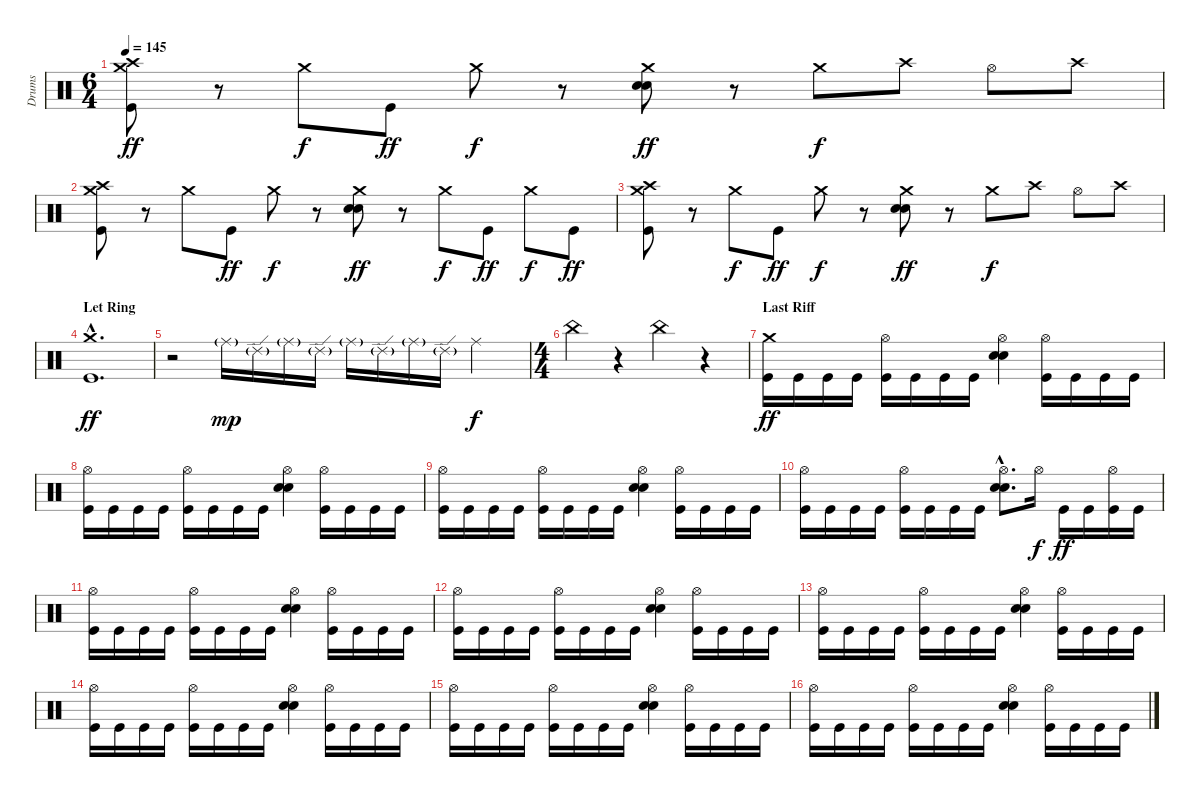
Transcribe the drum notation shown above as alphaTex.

\track ("Drums" "Drums") {instrument percussion}
\staff {score}
\articulation defaults
\ts (6 4)
\tempo 145
\clef neutral
\ks c
("Kick (hit)" "Crash high (hit)" "Crash medium (hit)").8{dy ff} r.8 "Crash medium (hit)".8{dy f} "Kick (hit)".8{dy ff} "Crash medium (hit)".8{dy f} r.8 ("Electric Snare (hit)" "Electric Snare (hit)" "Crash medium (hit)").8{dy ff} r.8 "Crash medium (hit)".8{dy f} "Crash high (hit)".8 "Hi-Hat (open)".8 "Crash high (hit)".8 |
("Kick (hit)" "Crash high (hit)" "Crash medium (hit)").8 r.8 "Crash medium (hit)".8 "Kick (hit)".8{dy ff} "Crash medium (hit)".8{dy f} r.8 ("Electric Snare (hit)" "Electric Snare (hit)" "Crash medium (hit)").8{dy ff} r.8 "Crash medium (hit)".8{dy f} "Kick (hit)".8{dy ff} "Crash medium (hit)".8{dy f} "Kick (hit)".8{dy ff} |
("Kick (hit)" "Crash high (hit)" "Crash medium (hit)").8 r.8 "Crash medium (hit)".8{dy f} "Kick (hit)".8{dy ff} "Crash medium (hit)".8{dy f} r.8 ("Electric Snare (hit)" "Electric Snare (hit)" "Crash medium (hit)").8{dy ff} r.8 "Crash medium (hit)".8{dy f} "Crash high (hit)".8 "Hi-Hat (open)".8 "Crash high (hit)".8 |
\section ("" "Let Ring")
("Kick (hit)"{hac} "Crash medium (hit)"{hac}).1{d dy ff} |
r.2 "Ride (middle)"{g}.16{dy mp} "Ride (edge) 2"{g}.16 "Ride (middle)"{g}.16 "Ride (edge) 2"{g}.16 "Ride (middle)"{g}.16 "Ride (edge) 2"{g}.16 "Ride (middle)"{g}.16 "Ride (edge) 2"{g}.16 "Ride (middle)".2{dy f} |
\ts (4 4)
"China (hit)".4 r.4 "China (hit)".4 r.4 |
\section ("" "Last Riff")
("Kick (hit)" "Crash medium (hit)").16{dy ff} "Kick (hit)".16 "Kick (hit)".16 "Kick (hit)".16 ("Kick (hit)" "Hi-Hat (open)").16 "Kick (hit)".16 "Kick (hit)".16 "Kick (hit)".16 ("Electric Snare (hit)" "Electric Snare (hit)" "Hi-Hat (open)").4 ("Kick (hit)" "Hi-Hat (open)").16 "Kick (hit)".16 "Kick (hit)".16 "Kick (hit)".16 |
("Kick (hit)" "Hi-Hat (open)").16 "Kick (hit)".16 "Kick (hit)".16 "Kick (hit)".16 ("Kick (hit)" "Hi-Hat (open)").16 "Kick (hit)".16 "Kick (hit)".16 "Kick (hit)".16 ("Electric Snare (hit)" "Electric Snare (hit)" "Hi-Hat (open)").4 ("Kick (hit)" "Hi-Hat (open)").16 "Kick (hit)".16 "Kick (hit)".16 "Kick (hit)".16 |
("Kick (hit)" "Hi-Hat (open)").16 "Kick (hit)".16 "Kick (hit)".16 "Kick (hit)".16 ("Kick (hit)" "Hi-Hat (open)").16 "Kick (hit)".16 "Kick (hit)".16 "Kick (hit)".16 ("Electric Snare (hit)" "Electric Snare (hit)" "Hi-Hat (open)").4 ("Kick (hit)" "Hi-Hat (open)").16 "Kick (hit)".16 "Kick (hit)".16 "Kick (hit)".16 |
("Kick (hit)" "Hi-Hat (open)").16 "Kick (hit)".16 "Kick (hit)".16 "Kick (hit)".16 ("Kick (hit)" "Hi-Hat (open)").16 "Kick (hit)".16 "Kick (hit)".16 "Kick (hit)".16 ("Electric Snare (hit)"{hac} "Electric Snare (hit)"{hac} "Hi-Hat (open)"{hac}).8{d} "Hi-Hat (open)".16{dy f} "Kick (hit)".16{dy ff} "Kick (hit)".16 ("Kick (hit)" "Hi-Hat (open)").16 "Kick (hit)".16 |
("Kick (hit)" "Hi-Hat (open)").16 "Kick (hit)".16 "Kick (hit)".16 "Kick (hit)".16 ("Kick (hit)" "Hi-Hat (open)").16 "Kick (hit)".16 "Kick (hit)".16 "Kick (hit)".16 ("Electric Snare (hit)" "Electric Snare (hit)" "Hi-Hat (open)").4 ("Kick (hit)" "Hi-Hat (open)").16 "Kick (hit)".16 "Kick (hit)".16 "Kick (hit)".16 |
("Kick (hit)" "Hi-Hat (open)").16 "Kick (hit)".16 "Kick (hit)".16 "Kick (hit)".16 ("Kick (hit)" "Hi-Hat (open)").16 "Kick (hit)".16 "Kick (hit)".16 "Kick (hit)".16 ("Electric Snare (hit)" "Electric Snare (hit)" "Hi-Hat (open)").4 ("Kick (hit)" "Hi-Hat (open)").16 "Kick (hit)".16 "Kick (hit)".16 "Kick (hit)".16 |
("Kick (hit)" "Hi-Hat (open)").16 "Kick (hit)".16 "Kick (hit)".16 "Kick (hit)".16 ("Kick (hit)" "Hi-Hat (open)").16 "Kick (hit)".16 "Kick (hit)".16 "Kick (hit)".16 ("Electric Snare (hit)" "Electric Snare (hit)" "Hi-Hat (open)").4 ("Kick (hit)" "Hi-Hat (open)").16 "Kick (hit)".16 "Kick (hit)".16 "Kick (hit)".16 |
("Kick (hit)" "Hi-Hat (open)").16 "Kick (hit)".16 "Kick (hit)".16 "Kick (hit)".16 ("Kick (hit)" "Hi-Hat (open)").16 "Kick (hit)".16 "Kick (hit)".16 "Kick (hit)".16 ("Electric Snare (hit)" "Electric Snare (hit)" "Hi-Hat (open)").4 ("Kick (hit)" "Hi-Hat (open)").16 "Kick (hit)".16 "Kick (hit)".16 "Kick (hit)".16 |
("Kick (hit)" "Hi-Hat (open)").16 "Kick (hit)".16 "Kick (hit)".16 "Kick (hit)".16 ("Kick (hit)" "Hi-Hat (open)").16 "Kick (hit)".16 "Kick (hit)".16 "Kick (hit)".16 ("Electric Snare (hit)" "Electric Snare (hit)" "Hi-Hat (open)").4 ("Kick (hit)" "Hi-Hat (open)").16 "Kick (hit)".16 "Kick (hit)".16 "Kick (hit)".16 |
("Kick (hit)" "Hi-Hat (open)").16 "Kick (hit)".16 "Kick (hit)".16 "Kick (hit)".16 ("Kick (hit)" "Hi-Hat (open)").16 "Kick (hit)".16 "Kick (hit)".16 "Kick (hit)".16 ("Electric Snare (hit)" "Electric Snare (hit)" "Hi-Hat (open)").4 ("Kick (hit)" "Hi-Hat (open)").16 "Kick (hit)".16 "Kick (hit)".16 "Kick (hit)".16
